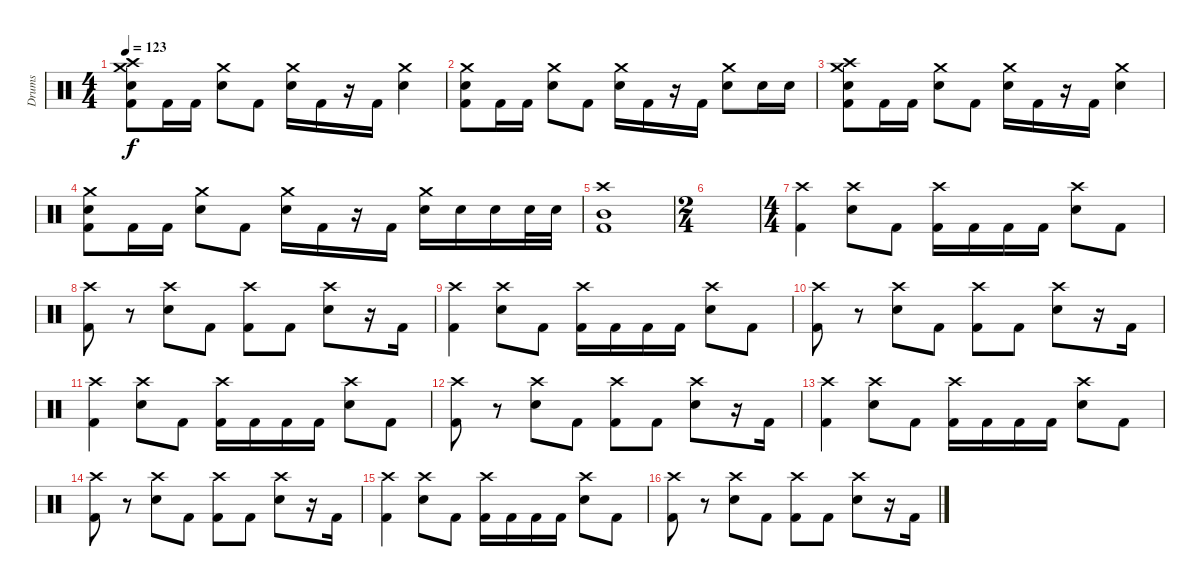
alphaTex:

\track ("Drums" "Drums") {instrument percussion}
\staff {score}
\articulation defaults
\ts (4 4)
\tempo 123
\clef neutral
\ks c
("Crash medium (hit)" "Crash high (hit)" "Electric Snare (hit)" "Kick (hit) 2").8{dy f} "Kick (hit) 2".16 "Kick (hit) 2".16 ("Crash medium (hit)" "Electric Snare (hit)").8 "Kick (hit) 2".8 ("Crash medium (hit)" "Electric Snare (hit)").16 "Kick (hit) 2".16 r.16 "Kick (hit) 2".16 ("Crash medium (hit)" "Electric Snare (hit)").4 |
("Crash medium (hit)" "Electric Snare (hit)" "Kick (hit) 2").8 "Kick (hit) 2".16 "Kick (hit) 2".16 ("Crash medium (hit)" "Electric Snare (hit)").8 "Kick (hit) 2".8 ("Crash medium (hit)" "Electric Snare (hit)").16 "Kick (hit) 2".16 r.16 "Kick (hit) 2".16 ("Crash medium (hit)" "Electric Snare (hit)").8 "Electric Snare (hit)".16 "Electric Snare (hit)".16 |
("Crash medium (hit)" "Crash high (hit)" "Electric Snare (hit)" "Kick (hit) 2").8 "Kick (hit) 2".16 "Kick (hit) 2".16 ("Crash medium (hit)" "Electric Snare (hit)").8 "Kick (hit) 2".8 ("Crash medium (hit)" "Electric Snare (hit)").16 "Kick (hit) 2".16 r.16 "Kick (hit) 2".16 ("Crash medium (hit)" "Electric Snare (hit)").4 |
("Crash medium (hit)" "Electric Snare (hit)" "Kick (hit) 2").8 "Kick (hit) 2".16 "Kick (hit) 2".16 ("Crash medium (hit)" "Electric Snare (hit)").8 "Kick (hit) 2".8 ("Crash medium (hit)" "Electric Snare (hit)").16 "Kick (hit) 2".16 r.16 "Kick (hit) 2".16 ("Crash medium (hit)" "Electric Snare (hit)").16 "Electric Snare (hit)".16 "Electric Snare (hit)".16 "Electric Snare (hit)".32 "Electric Snare (hit)".32 |
("Crash high (hit)" "Mid Tom (hit)" "Kick (hit) 2").1 |
\ts (2 4)
|
\ts (4 4)
("Crash high (hit)" "Kick (hit) 2").4 ("Crash high (hit)" "Snare (hit) 2").8 "Kick (hit) 2".8 ("Crash high (hit)" "Kick (hit) 2").16 "Kick (hit) 2".16 "Kick (hit) 2".16 "Kick (hit) 2".16 ("Crash high (hit)" "Snare (hit) 2").8 "Kick (hit) 2".8 |
("Crash high (hit)" "Kick (hit) 2").8 r.8 ("Crash high (hit)" "Snare (hit) 2").8 "Kick (hit) 2".8 ("Crash high (hit)" "Kick (hit) 2").8 "Kick (hit) 2".8 ("Crash high (hit)" "Snare (hit) 2").8 r.16 "Kick (hit) 2".16 |
("Crash high (hit)" "Kick (hit) 2").4 ("Crash high (hit)" "Snare (hit) 2").8 "Kick (hit) 2".8 ("Crash high (hit)" "Kick (hit) 2").16 "Kick (hit) 2".16 "Kick (hit) 2".16 "Kick (hit) 2".16 ("Crash high (hit)" "Snare (hit) 2").8 "Kick (hit) 2".8 |
("Crash high (hit)" "Kick (hit) 2").8 r.8 ("Crash high (hit)" "Snare (hit) 2").8 "Kick (hit) 2".8 ("Crash high (hit)" "Kick (hit) 2").8 "Kick (hit) 2".8 ("Crash high (hit)" "Snare (hit) 2").8 r.16 "Kick (hit) 2".16 |
("Crash high (hit)" "Kick (hit) 2").4 ("Crash high (hit)" "Snare (hit) 2").8 "Kick (hit) 2".8 ("Crash high (hit)" "Kick (hit) 2").16 "Kick (hit) 2".16 "Kick (hit) 2".16 "Kick (hit) 2".16 ("Crash high (hit)" "Snare (hit) 2").8 "Kick (hit) 2".8 |
("Crash high (hit)" "Kick (hit) 2").8 r.8 ("Crash high (hit)" "Snare (hit) 2").8 "Kick (hit) 2".8 ("Crash high (hit)" "Kick (hit) 2").8 "Kick (hit) 2".8 ("Crash high (hit)" "Snare (hit) 2").8 r.16 "Kick (hit) 2".16 |
("Crash high (hit)" "Kick (hit) 2").4 ("Crash high (hit)" "Snare (hit) 2").8 "Kick (hit) 2".8 ("Crash high (hit)" "Kick (hit) 2").16 "Kick (hit) 2".16 "Kick (hit) 2".16 "Kick (hit) 2".16 ("Crash high (hit)" "Snare (hit) 2").8 "Kick (hit) 2".8 |
("Crash high (hit)" "Kick (hit) 2").8 r.8 ("Crash high (hit)" "Snare (hit) 2").8 "Kick (hit) 2".8 ("Crash high (hit)" "Kick (hit) 2").8 "Kick (hit) 2".8 ("Crash high (hit)" "Snare (hit) 2").8 r.16 "Kick (hit) 2".16 |
("Crash high (hit)" "Kick (hit) 2").4 ("Crash high (hit)" "Snare (hit) 2").8 "Kick (hit) 2".8 ("Crash high (hit)" "Kick (hit) 2").16 "Kick (hit) 2".16 "Kick (hit) 2".16 "Kick (hit) 2".16 ("Crash high (hit)" "Snare (hit) 2").8 "Kick (hit) 2".8 |
("Crash high (hit)" "Kick (hit) 2").8 r.8 ("Crash high (hit)" "Snare (hit) 2").8 "Kick (hit) 2".8 ("Crash high (hit)" "Kick (hit) 2").8 "Kick (hit) 2".8 ("Crash high (hit)" "Snare (hit) 2").8 r.16 "Kick (hit) 2".16
